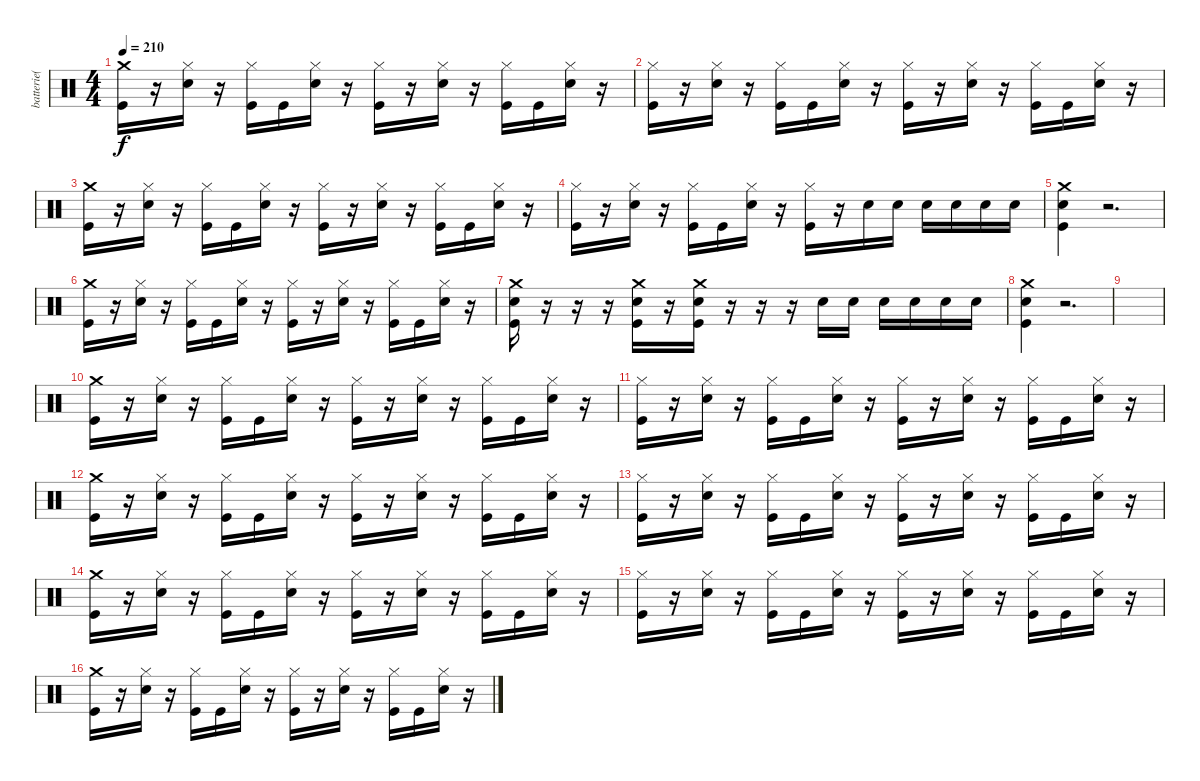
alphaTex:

\track ("batterie( Jimmy ) " "batterie( ") {instrument percussion}
\staff {score}
\articulation defaults
\ts (4 4)
\tempo 210
\clef neutral
\ks c
("Crash medium (hit)" "Kick (hit)").16{dy f} r.16 ("Hi-Hat (closed)" "Snare (hit) 2").16 r.16 ("Hi-Hat (closed)" "Kick (hit)").16 "Kick (hit)".16 ("Hi-Hat (closed)" "Snare (hit) 2").16 r.16 ("Hi-Hat (closed)" "Kick (hit)").16 r.16 ("Hi-Hat (closed)" "Snare (hit) 2").16 r.16 ("Hi-Hat (closed)" "Kick (hit)").16 "Kick (hit)".16 ("Hi-Hat (closed)" "Snare (hit) 2").16 r.16 |
("Hi-Hat (closed)" "Kick (hit)").16 r.16 ("Hi-Hat (closed)" "Snare (hit) 2").16 r.16 ("Hi-Hat (closed)" "Kick (hit)").16 "Kick (hit)".16 ("Hi-Hat (closed)" "Snare (hit) 2").16 r.16 ("Hi-Hat (closed)" "Kick (hit)").16 r.16 ("Hi-Hat (closed)" "Snare (hit) 2").16 r.16 ("Hi-Hat (closed)" "Kick (hit)").16 "Kick (hit)".16 ("Hi-Hat (closed)" "Snare (hit) 2").16 r.16 |
("Crash medium (hit)" "Kick (hit)").16 r.16 ("Hi-Hat (closed)" "Snare (hit) 2").16 r.16 ("Hi-Hat (closed)" "Kick (hit)").16 "Kick (hit)".16 ("Hi-Hat (closed)" "Snare (hit) 2").16 r.16 ("Hi-Hat (closed)" "Kick (hit)").16 r.16 ("Hi-Hat (closed)" "Snare (hit) 2").16 r.16 ("Hi-Hat (closed)" "Kick (hit)").16 "Kick (hit)".16 ("Hi-Hat (closed)" "Snare (hit) 2").16 r.16 |
("Hi-Hat (closed)" "Kick (hit)").16 r.16 ("Hi-Hat (closed)" "Snare (hit) 2").16 r.16 ("Hi-Hat (closed)" "Kick (hit)").16 "Kick (hit)".16 ("Hi-Hat (closed)" "Snare (hit) 2").16 r.16 ("Hi-Hat (closed)" "Kick (hit)").16 r.16 "Snare (hit) 2".16 "Snare (hit) 2".16 "Snare (hit) 2".16 "Snare (hit) 2".16 "Snare (hit) 2".16 "Snare (hit) 2".16 |
("Crash medium (hit)" "Snare (hit) 2" "Kick (hit)").4 r.2{d} |
("Crash medium (hit)" "Kick (hit)").16 r.16 ("Hi-Hat (closed)" "Snare (hit) 2").16 r.16 ("Hi-Hat (closed)" "Kick (hit)").16 "Kick (hit)".16 ("Hi-Hat (closed)" "Snare (hit) 2").16 r.16 ("Hi-Hat (closed)" "Kick (hit)").16 r.16 ("Hi-Hat (closed)" "Snare (hit) 2").16 r.16 ("Hi-Hat (closed)" "Kick (hit)").16 "Kick (hit)".16 ("Hi-Hat (closed)" "Snare (hit) 2").16 r.16 |
("Crash medium (hit)" "Snare (hit) 2" "Kick (hit)").16 r.16 r.16 r.16 ("Crash medium (hit)" "Snare (hit) 2" "Kick (hit)").16 r.16 ("Crash medium (hit)" "Snare (hit) 2" "Kick (hit)").16 r.16 r.16 r.16 "Snare (hit) 2".16 "Snare (hit) 2".16 "Snare (hit) 2".16 "Snare (hit) 2".16 "Snare (hit) 2".16 "Snare (hit) 2".16 |
("Crash medium (hit)" "Snare (hit) 2" "Kick (hit)").4 r.2{d} |
|
("Crash medium (hit)" "Kick (hit)").16 r.16 ("Hi-Hat (closed)" "Snare (hit) 2").16 r.16 ("Hi-Hat (closed)" "Kick (hit)").16 "Kick (hit)".16 ("Hi-Hat (closed)" "Snare (hit) 2").16 r.16 ("Hi-Hat (closed)" "Kick (hit)").16 r.16 ("Hi-Hat (closed)" "Snare (hit) 2").16 r.16 ("Hi-Hat (closed)" "Kick (hit)").16 "Kick (hit)".16 ("Hi-Hat (closed)" "Snare (hit) 2").16 r.16 |
("Hi-Hat (closed)" "Kick (hit)").16 r.16 ("Hi-Hat (closed)" "Snare (hit) 2").16 r.16 ("Hi-Hat (closed)" "Kick (hit)").16 "Kick (hit)".16 ("Hi-Hat (closed)" "Snare (hit) 2").16 r.16 ("Hi-Hat (closed)" "Kick (hit)").16 r.16 ("Hi-Hat (closed)" "Snare (hit) 2").16 r.16 ("Hi-Hat (closed)" "Kick (hit)").16 "Kick (hit)".16 ("Hi-Hat (closed)" "Snare (hit) 2").16 r.16 |
("Crash medium (hit)" "Kick (hit)").16 r.16 ("Hi-Hat (closed)" "Snare (hit) 2").16 r.16 ("Hi-Hat (closed)" "Kick (hit)").16 "Kick (hit)".16 ("Hi-Hat (closed)" "Snare (hit) 2").16 r.16 ("Hi-Hat (closed)" "Kick (hit)").16 r.16 ("Hi-Hat (closed)" "Snare (hit) 2").16 r.16 ("Hi-Hat (closed)" "Kick (hit)").16 "Kick (hit)".16 ("Hi-Hat (closed)" "Snare (hit) 2").16 r.16 |
("Hi-Hat (closed)" "Kick (hit)").16 r.16 ("Hi-Hat (closed)" "Snare (hit) 2").16 r.16 ("Hi-Hat (closed)" "Kick (hit)").16 "Kick (hit)".16 ("Hi-Hat (closed)" "Snare (hit) 2").16 r.16 ("Hi-Hat (closed)" "Kick (hit)").16 r.16 ("Hi-Hat (closed)" "Snare (hit) 2").16 r.16 ("Hi-Hat (closed)" "Kick (hit)").16 "Kick (hit)".16 ("Hi-Hat (closed)" "Snare (hit) 2").16 r.16 |
("Crash medium (hit)" "Kick (hit)").16 r.16 ("Hi-Hat (closed)" "Snare (hit) 2").16 r.16 ("Hi-Hat (closed)" "Kick (hit)").16 "Kick (hit)".16 ("Hi-Hat (closed)" "Snare (hit) 2").16 r.16 ("Hi-Hat (closed)" "Kick (hit)").16 r.16 ("Hi-Hat (closed)" "Snare (hit) 2").16 r.16 ("Hi-Hat (closed)" "Kick (hit)").16 "Kick (hit)".16 ("Hi-Hat (closed)" "Snare (hit) 2").16 r.16 |
("Hi-Hat (closed)" "Kick (hit)").16 r.16 ("Hi-Hat (closed)" "Snare (hit) 2").16 r.16 ("Hi-Hat (closed)" "Kick (hit)").16 "Kick (hit)".16 ("Hi-Hat (closed)" "Snare (hit) 2").16 r.16 ("Hi-Hat (closed)" "Kick (hit)").16 r.16 ("Hi-Hat (closed)" "Snare (hit) 2").16 r.16 ("Hi-Hat (closed)" "Kick (hit)").16 "Kick (hit)".16 ("Hi-Hat (closed)" "Snare (hit) 2").16 r.16 |
("Crash medium (hit)" "Kick (hit)").16 r.16 ("Hi-Hat (closed)" "Snare (hit) 2").16 r.16 ("Hi-Hat (closed)" "Kick (hit)").16 "Kick (hit)".16 ("Hi-Hat (closed)" "Snare (hit) 2").16 r.16 ("Hi-Hat (closed)" "Kick (hit)").16 r.16 ("Hi-Hat (closed)" "Snare (hit) 2").16 r.16 ("Hi-Hat (closed)" "Kick (hit)").16 "Kick (hit)".16 ("Hi-Hat (closed)" "Snare (hit) 2").16 r.16
